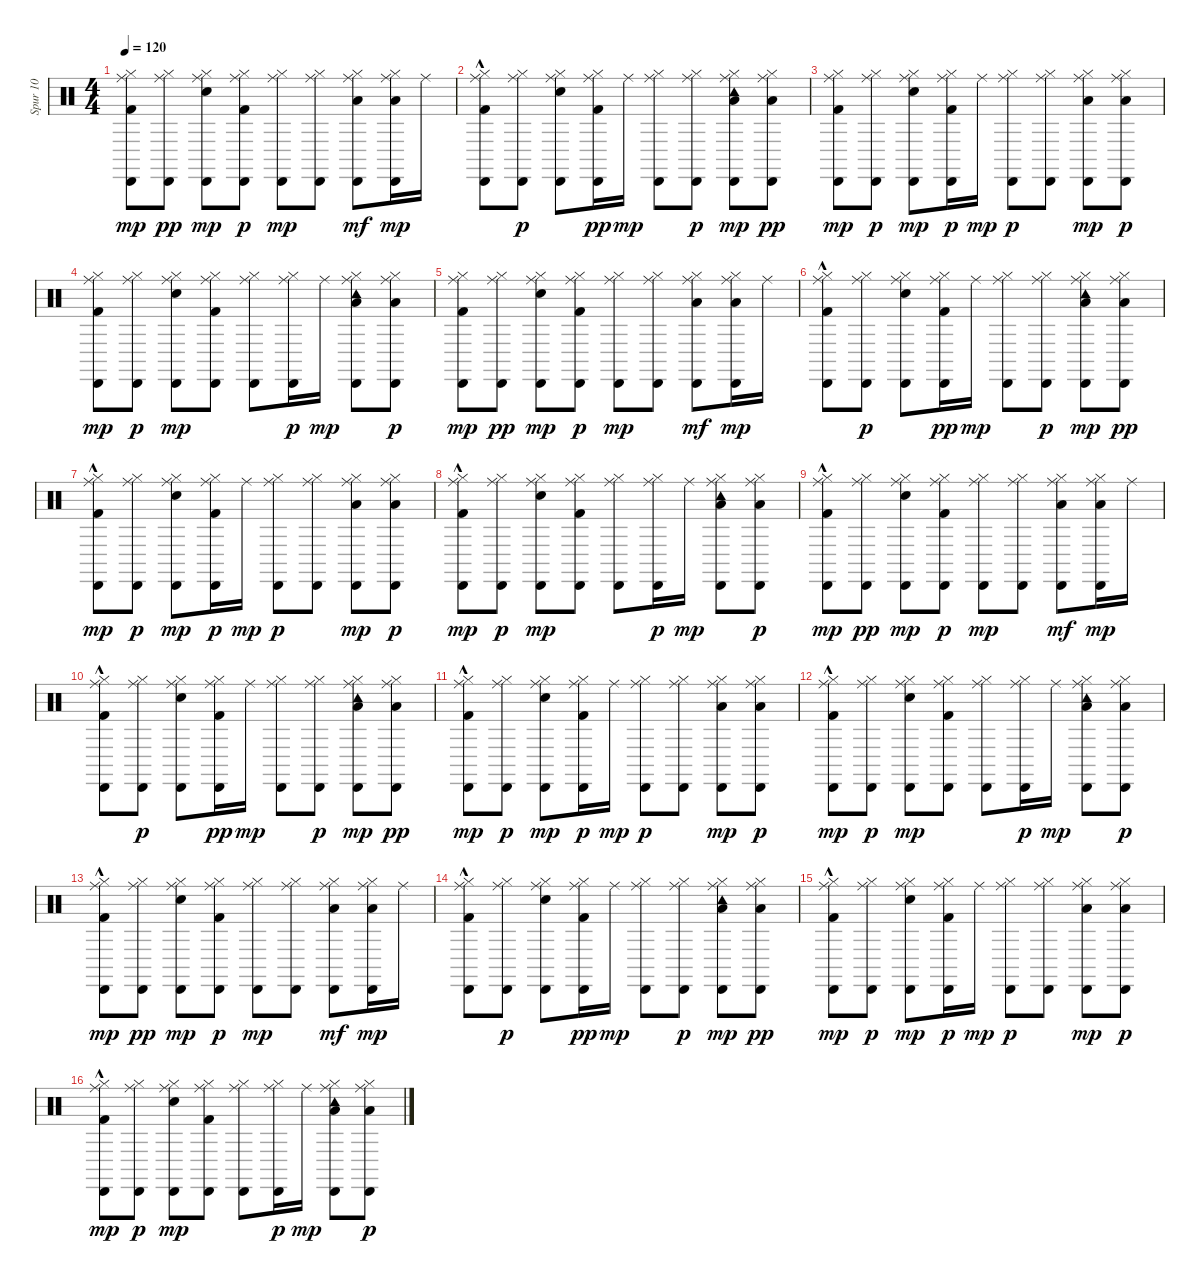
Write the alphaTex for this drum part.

\track ("Spur 10" "Spur 10") {instrument percussion}
\staff {score}
\articulation defaults
\ts (4 4)
\tempo 120
\clef neutral
\ks c
("Kick (hit) 2" "Hi-Hat (closed)" "Cabasa (hit)" "Ride (middle)").8{dy mp} ("Hi-Hat (closed)" "Cabasa (hit)" "Ride (middle)").8{dy pp} ("Snare (hit) 2" "Hi-Hat (closed)" "Cabasa (hit)" "Ride (middle)").8{dy mp} ("Kick (hit) 2" "Hi-Hat (closed)" "Cabasa (hit)" "Ride (middle)").8{dy p} ("Hi-Hat (closed)" "Cabasa (hit)" "Ride (middle)").8{dy mp} ("Hi-Hat (closed)" "Cabasa (hit)" "Ride (middle)").8 ("Low Floor Tom (hit)" "Hi-Hat (closed)" "Cabasa (hit)" "Ride (middle)").8{dy mf} ("Low Floor Tom (hit)" "Hi-Hat (closed)" "Cabasa (hit)" "Ride (middle)").16{dy mp} "Ride (middle)".16 |
("Kick (hit) 2"{hac} "Hi-Hat (closed)" "Cabasa (hit)" "Ride (middle)").8 ("Hi-Hat (closed)" "Cabasa (hit)" "Ride (middle)").8{dy p} ("Snare (hit) 2" "Hi-Hat (closed)" "Cabasa (hit)" "Ride (middle)").8 ("Kick (hit) 2" "Hi-Hat (closed)" "Cabasa (hit)" "Ride (middle)").16{dy pp} "Ride (middle)".16{dy mp} ("Hi-Hat (closed)" "Cabasa (hit)" "Ride (middle)").8 ("Hi-Hat (closed)" "Cabasa (hit)" "Ride (middle)").8{dy p} ("Low Tom (hit)" "Hi-Hat (closed)" "Cabasa (hit)" "Tambourine (hit)" "Ride (middle)").8{dy mp} ("Low Tom (hit)" "Hi-Hat (closed)" "Cabasa (hit)" "Ride (middle)").8{dy pp} |
("Kick (hit) 2" "Hi-Hat (closed)" "Cabasa (hit)" "Ride (middle)").8{dy mp} ("Hi-Hat (closed)" "Cabasa (hit)" "Ride (middle)").8{dy p} ("Snare (hit) 2" "Hi-Hat (closed)" "Cabasa (hit)" "Ride (middle)").8{dy mp} ("Kick (hit) 2" "Hi-Hat (closed)" "Cabasa (hit)" "Ride (middle)").16{dy p} "Ride (middle)".16{dy mp} ("Hi-Hat (closed)" "Cabasa (hit)" "Ride (middle)").8{dy p} ("Hi-Hat (closed)" "Cabasa (hit)" "Ride (middle)").8 ("Low Floor Tom (hit)" "Hi-Hat (closed)" "Cabasa (hit)" "Ride (middle)").8{dy mp} ("Low Floor Tom (hit)" "Hi-Hat (closed)" "Cabasa (hit)" "Ride (middle)").8{dy p} |
("Kick (hit) 2" "Hi-Hat (closed)" "Cabasa (hit)" "Ride (middle)").8{dy mp} ("Hi-Hat (closed)" "Cabasa (hit)" "Ride (middle)").8{dy p} ("Snare (hit) 2" "Hi-Hat (closed)" "Cabasa (hit)" "Ride (middle)").8{dy mp} ("Kick (hit) 2" "Hi-Hat (closed)" "Cabasa (hit)" "Ride (middle)").8 ("Hi-Hat (closed)" "Cabasa (hit)" "Ride (middle)").8 ("Hi-Hat (closed)" "Cabasa (hit)" "Ride (middle)").16{dy p} "Ride (middle)".16{dy mp} ("Low Tom (hit)" "Hi-Hat (closed)" "Cabasa (hit)" "Tambourine (hit)" "Ride (middle)").8 ("Low Tom (hit)" "Hi-Hat (closed)" "Cabasa (hit)" "Ride (middle)").8{dy p} |
("Kick (hit) 2" "Hi-Hat (closed)" "Cabasa (hit)" "Ride (middle)").8{dy mp} ("Hi-Hat (closed)" "Cabasa (hit)" "Ride (middle)").8{dy pp} ("Snare (hit) 2" "Hi-Hat (closed)" "Cabasa (hit)" "Ride (middle)").8{dy mp} ("Kick (hit) 2" "Hi-Hat (closed)" "Cabasa (hit)" "Ride (middle)").8{dy p} ("Hi-Hat (closed)" "Cabasa (hit)" "Ride (middle)").8{dy mp} ("Hi-Hat (closed)" "Cabasa (hit)" "Ride (middle)").8 ("Low Floor Tom (hit)" "Hi-Hat (closed)" "Cabasa (hit)" "Ride (middle)").8{dy mf} ("Low Floor Tom (hit)" "Hi-Hat (closed)" "Cabasa (hit)" "Ride (middle)").16{dy mp} "Ride (middle)".16 |
("Kick (hit) 2"{hac} "Hi-Hat (closed)" "Cabasa (hit)" "Ride (middle)").8 ("Hi-Hat (closed)" "Cabasa (hit)" "Ride (middle)").8{dy p} ("Snare (hit) 2" "Hi-Hat (closed)" "Cabasa (hit)" "Ride (middle)").8 ("Kick (hit) 2" "Hi-Hat (closed)" "Cabasa (hit)" "Ride (middle)").16{dy pp} "Ride (middle)".16{dy mp} ("Hi-Hat (closed)" "Cabasa (hit)" "Ride (middle)").8 ("Hi-Hat (closed)" "Cabasa (hit)" "Ride (middle)").8{dy p} ("Low Tom (hit)" "Hi-Hat (closed)" "Cabasa (hit)" "Tambourine (hit)" "Ride (middle)").8{dy mp} ("Low Tom (hit)" "Hi-Hat (closed)" "Cabasa (hit)" "Ride (middle)").8{dy pp} |
("Kick (hit) 2"{hac} "Hi-Hat (closed)" "Cabasa (hit)" "Ride (middle)").8{dy mp} ("Hi-Hat (closed)" "Cabasa (hit)" "Ride (middle)").8{dy p} ("Snare (hit) 2" "Hi-Hat (closed)" "Cabasa (hit)" "Ride (middle)").8{dy mp} ("Kick (hit) 2" "Hi-Hat (closed)" "Cabasa (hit)" "Ride (middle)").16{dy p} "Ride (middle)".16{dy mp} ("Hi-Hat (closed)" "Cabasa (hit)" "Ride (middle)").8{dy p} ("Hi-Hat (closed)" "Cabasa (hit)" "Ride (middle)").8 ("Low Floor Tom (hit)" "Hi-Hat (closed)" "Cabasa (hit)" "Ride (middle)").8{dy mp} ("Low Floor Tom (hit)" "Hi-Hat (closed)" "Cabasa (hit)" "Ride (middle)").8{dy p} |
("Kick (hit) 2"{hac} "Hi-Hat (closed)" "Cabasa (hit)" "Ride (middle)").8{dy mp} ("Hi-Hat (closed)" "Cabasa (hit)" "Ride (middle)").8{dy p} ("Snare (hit) 2" "Hi-Hat (closed)" "Cabasa (hit)" "Ride (middle)").8{dy mp} ("Kick (hit) 2" "Hi-Hat (closed)" "Cabasa (hit)" "Ride (middle)").8 ("Hi-Hat (closed)" "Cabasa (hit)" "Ride (middle)").8 ("Hi-Hat (closed)" "Cabasa (hit)" "Ride (middle)").16{dy p} "Ride (middle)".16{dy mp} ("Low Tom (hit)" "Hi-Hat (closed)" "Cabasa (hit)" "Tambourine (hit)" "Ride (middle)").8 ("Low Tom (hit)" "Hi-Hat (closed)" "Cabasa (hit)" "Ride (middle)").8{dy p} |
("Kick (hit) 2"{hac} "Hi-Hat (closed)" "Cabasa (hit)" "Ride (middle)").8{dy mp} ("Hi-Hat (closed)" "Cabasa (hit)" "Ride (middle)").8{dy pp} ("Snare (hit) 2" "Hi-Hat (closed)" "Cabasa (hit)" "Ride (middle)").8{dy mp} ("Kick (hit) 2" "Hi-Hat (closed)" "Cabasa (hit)" "Ride (middle)").8{dy p} ("Hi-Hat (closed)" "Cabasa (hit)" "Ride (middle)").8{dy mp} ("Hi-Hat (closed)" "Cabasa (hit)" "Ride (middle)").8 ("Low Floor Tom (hit)" "Hi-Hat (closed)" "Cabasa (hit)" "Ride (middle)").8{dy mf} ("Low Floor Tom (hit)" "Hi-Hat (closed)" "Cabasa (hit)" "Ride (middle)").16{dy mp} "Ride (middle)".16 |
("Kick (hit) 2"{hac} "Hi-Hat (closed)" "Cabasa (hit)" "Ride (middle)").8 ("Hi-Hat (closed)" "Cabasa (hit)" "Ride (middle)").8{dy p} ("Snare (hit) 2" "Hi-Hat (closed)" "Cabasa (hit)" "Ride (middle)").8 ("Kick (hit) 2" "Hi-Hat (closed)" "Cabasa (hit)" "Ride (middle)").16{dy pp} "Ride (middle)".16{dy mp} ("Hi-Hat (closed)" "Cabasa (hit)" "Ride (middle)").8 ("Hi-Hat (closed)" "Cabasa (hit)" "Ride (middle)").8{dy p} ("Low Tom (hit)" "Hi-Hat (closed)" "Cabasa (hit)" "Tambourine (hit)" "Ride (middle)").8{dy mp} ("Low Tom (hit)" "Hi-Hat (closed)" "Cabasa (hit)" "Ride (middle)").8{dy pp} |
("Kick (hit) 2"{hac} "Hi-Hat (closed)" "Cabasa (hit)" "Ride (middle)").8{dy mp} ("Hi-Hat (closed)" "Cabasa (hit)" "Ride (middle)").8{dy p} ("Snare (hit) 2" "Hi-Hat (closed)" "Cabasa (hit)" "Ride (middle)").8{dy mp} ("Kick (hit) 2" "Hi-Hat (closed)" "Cabasa (hit)" "Ride (middle)").16{dy p} "Ride (middle)".16{dy mp} ("Hi-Hat (closed)" "Cabasa (hit)" "Ride (middle)").8{dy p} ("Hi-Hat (closed)" "Cabasa (hit)" "Ride (middle)").8 ("Low Floor Tom (hit)" "Hi-Hat (closed)" "Cabasa (hit)" "Ride (middle)").8{dy mp} ("Low Floor Tom (hit)" "Hi-Hat (closed)" "Cabasa (hit)" "Ride (middle)").8{dy p} |
("Kick (hit) 2"{hac} "Hi-Hat (closed)" "Cabasa (hit)" "Ride (middle)").8{dy mp} ("Hi-Hat (closed)" "Cabasa (hit)" "Ride (middle)").8{dy p} ("Snare (hit) 2" "Hi-Hat (closed)" "Cabasa (hit)" "Ride (middle)").8{dy mp} ("Kick (hit) 2" "Hi-Hat (closed)" "Cabasa (hit)" "Ride (middle)").8 ("Hi-Hat (closed)" "Cabasa (hit)" "Ride (middle)").8 ("Hi-Hat (closed)" "Cabasa (hit)" "Ride (middle)").16{dy p} "Ride (middle)".16{dy mp} ("Low Tom (hit)" "Hi-Hat (closed)" "Cabasa (hit)" "Tambourine (hit)" "Ride (middle)").8 ("Low Tom (hit)" "Hi-Hat (closed)" "Cabasa (hit)" "Ride (middle)").8{dy p} |
("Kick (hit) 2"{hac} "Hi-Hat (closed)" "Cabasa (hit)" "Ride (middle)").8{dy mp} ("Hi-Hat (closed)" "Cabasa (hit)" "Ride (middle)").8{dy pp} ("Snare (hit) 2" "Hi-Hat (closed)" "Cabasa (hit)" "Ride (middle)").8{dy mp} ("Kick (hit) 2" "Hi-Hat (closed)" "Cabasa (hit)" "Ride (middle)").8{dy p} ("Hi-Hat (closed)" "Cabasa (hit)" "Ride (middle)").8{dy mp} ("Hi-Hat (closed)" "Cabasa (hit)" "Ride (middle)").8 ("Low Floor Tom (hit)" "Hi-Hat (closed)" "Cabasa (hit)" "Ride (middle)").8{dy mf} ("Low Floor Tom (hit)" "Hi-Hat (closed)" "Cabasa (hit)" "Ride (middle)").16{dy mp} "Ride (middle)".16 |
("Kick (hit) 2"{hac} "Hi-Hat (closed)" "Cabasa (hit)" "Ride (middle)").8 ("Hi-Hat (closed)" "Cabasa (hit)" "Ride (middle)").8{dy p} ("Snare (hit) 2" "Hi-Hat (closed)" "Cabasa (hit)" "Ride (middle)").8 ("Kick (hit) 2" "Hi-Hat (closed)" "Cabasa (hit)" "Ride (middle)").16{dy pp} "Ride (middle)".16{dy mp} ("Hi-Hat (closed)" "Cabasa (hit)" "Ride (middle)").8 ("Hi-Hat (closed)" "Cabasa (hit)" "Ride (middle)").8{dy p} ("Low Tom (hit)" "Hi-Hat (closed)" "Cabasa (hit)" "Tambourine (hit)" "Ride (middle)").8{dy mp} ("Low Tom (hit)" "Hi-Hat (closed)" "Cabasa (hit)" "Ride (middle)").8{dy pp} |
("Kick (hit) 2"{hac} "Hi-Hat (closed)" "Cabasa (hit)" "Ride (middle)").8{dy mp} ("Hi-Hat (closed)" "Cabasa (hit)" "Ride (middle)").8{dy p} ("Snare (hit) 2" "Hi-Hat (closed)" "Cabasa (hit)" "Ride (middle)").8{dy mp} ("Kick (hit) 2" "Hi-Hat (closed)" "Cabasa (hit)" "Ride (middle)").16{dy p} "Ride (middle)".16{dy mp} ("Hi-Hat (closed)" "Cabasa (hit)" "Ride (middle)").8{dy p} ("Hi-Hat (closed)" "Cabasa (hit)" "Ride (middle)").8 ("Low Floor Tom (hit)" "Hi-Hat (closed)" "Cabasa (hit)" "Ride (middle)").8{dy mp} ("Low Floor Tom (hit)" "Hi-Hat (closed)" "Cabasa (hit)" "Ride (middle)").8{dy p} |
("Kick (hit) 2"{hac} "Hi-Hat (closed)" "Cabasa (hit)" "Ride (middle)").8{dy mp} ("Hi-Hat (closed)" "Cabasa (hit)" "Ride (middle)").8{dy p} ("Snare (hit) 2" "Hi-Hat (closed)" "Cabasa (hit)" "Ride (middle)").8{dy mp} ("Kick (hit) 2" "Hi-Hat (closed)" "Cabasa (hit)" "Ride (middle)").8 ("Hi-Hat (closed)" "Cabasa (hit)" "Ride (middle)").8 ("Hi-Hat (closed)" "Cabasa (hit)" "Ride (middle)").16{dy p} "Ride (middle)".16{dy mp} ("Low Tom (hit)" "Hi-Hat (closed)" "Cabasa (hit)" "Tambourine (hit)" "Ride (middle)").8 ("Low Tom (hit)" "Hi-Hat (closed)" "Cabasa (hit)" "Ride (middle)").8{dy p}
